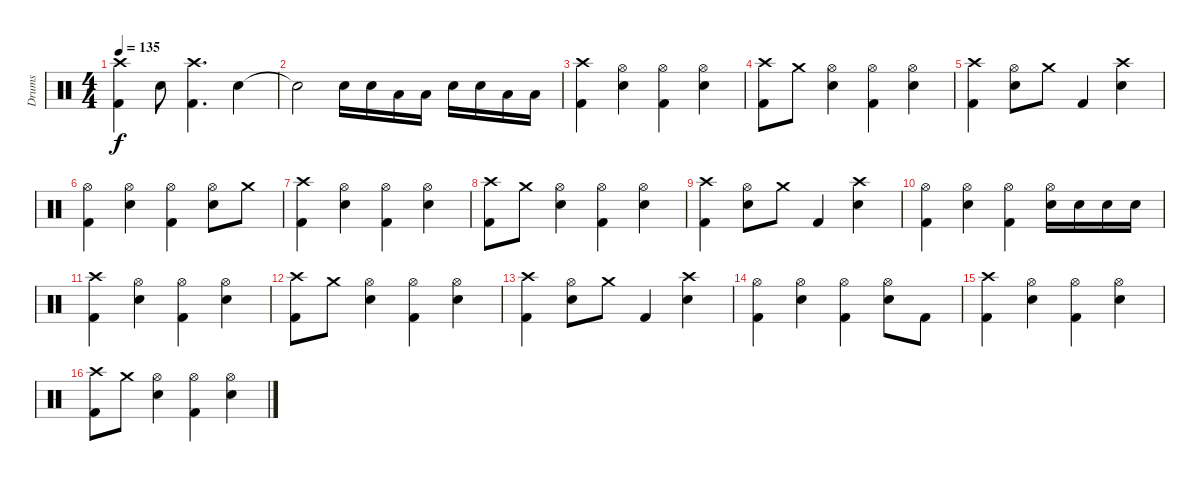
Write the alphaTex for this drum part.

\track ("Drums" "Drums") {instrument percussion}
\staff {score}
\articulation defaults
\ts (4 4)
\tempo 135
\clef neutral
\ks c
("Crash high (hit)" "Kick (hit) 2").4{dy f} "Snare (hit) 2".8 ("Crash high (hit)" "Kick (hit) 2").4{d} "Snare (hit) 2".4 |
"Snare (hit) 2"{t}.2 "Snare (hit) 2".16 "Snare (hit) 2".16 "Low Tom (hit)".16 "Low Tom (hit)".16 "Snare (hit) 2".16 "Snare (hit) 2".16 "Low Tom (hit)".16 "Low Tom (hit)".16 |
("Crash high (hit)" "Kick (hit) 2").4 ("Hi-Hat (open)" "Snare (hit) 2").4 ("Hi-Hat (open)" "Kick (hit) 2").4 ("Hi-Hat (open)" "Snare (hit) 2").4 |
("Crash high (hit)" "Kick (hit) 2").8 "Crash medium (hit)".8 ("Hi-Hat (open)" "Snare (hit) 2").4 ("Hi-Hat (open)" "Kick (hit) 2").4 ("Hi-Hat (open)" "Snare (hit) 2").4 |
("Crash high (hit)" "Kick (hit) 2").4 ("Hi-Hat (open)" "Snare (hit) 2").8 "Crash medium (hit)".8 "Kick (hit) 2".4 ("Crash high (hit)" "Snare (hit) 2").4 |
("Hi-Hat (open)" "Kick (hit) 2").4 ("Hi-Hat (open)" "Snare (hit) 2").4 ("Hi-Hat (open)" "Kick (hit) 2").4 ("Hi-Hat (open)" "Snare (hit) 2").8 "Crash medium (hit)".8 |
("Crash high (hit)" "Kick (hit) 2").4 ("Hi-Hat (open)" "Snare (hit) 2").4 ("Hi-Hat (open)" "Kick (hit) 2").4 ("Hi-Hat (open)" "Snare (hit) 2").4 |
("Crash high (hit)" "Kick (hit) 2").8 "Crash medium (hit)".8 ("Hi-Hat (open)" "Snare (hit) 2").4 ("Hi-Hat (open)" "Kick (hit) 2").4 ("Hi-Hat (open)" "Snare (hit) 2").4 |
("Crash high (hit)" "Kick (hit) 2").4 ("Hi-Hat (open)" "Snare (hit) 2").8 "Crash medium (hit)".8 "Kick (hit) 2".4 ("Crash high (hit)" "Snare (hit) 2").4 |
("Hi-Hat (open)" "Kick (hit) 2").4 ("Hi-Hat (open)" "Snare (hit) 2").4 ("Hi-Hat (open)" "Kick (hit) 2").4 ("Hi-Hat (open)" "Snare (hit) 2").16 "Snare (hit) 2".16 "Snare (hit) 2".16 "Snare (hit) 2".16 |
("Crash high (hit)" "Kick (hit) 2").4 ("Hi-Hat (open)" "Snare (hit) 2").4 ("Hi-Hat (open)" "Kick (hit) 2").4 ("Hi-Hat (open)" "Snare (hit) 2").4 |
("Crash high (hit)" "Kick (hit) 2").8 "Crash medium (hit)".8 ("Hi-Hat (open)" "Snare (hit) 2").4 ("Hi-Hat (open)" "Kick (hit) 2").4 ("Hi-Hat (open)" "Snare (hit) 2").4 |
("Crash high (hit)" "Kick (hit) 2").4 ("Hi-Hat (open)" "Snare (hit) 2").8 "Crash medium (hit)".8 "Kick (hit) 2".4 ("Crash high (hit)" "Snare (hit) 2").4 |
("Hi-Hat (open)" "Kick (hit) 2").4 ("Hi-Hat (open)" "Snare (hit) 2").4 ("Hi-Hat (open)" "Kick (hit) 2").4 ("Hi-Hat (open)" "Snare (hit) 2").8 "Kick (hit) 2".8 |
("Crash high (hit)" "Kick (hit) 2").4 ("Hi-Hat (open)" "Snare (hit) 2").4 ("Hi-Hat (open)" "Kick (hit) 2").4 ("Hi-Hat (open)" "Snare (hit) 2").4 |
("Crash high (hit)" "Kick (hit) 2").8 "Crash medium (hit)".8 ("Hi-Hat (open)" "Snare (hit) 2").4 ("Hi-Hat (open)" "Kick (hit) 2").4 ("Hi-Hat (open)" "Snare (hit) 2").4
